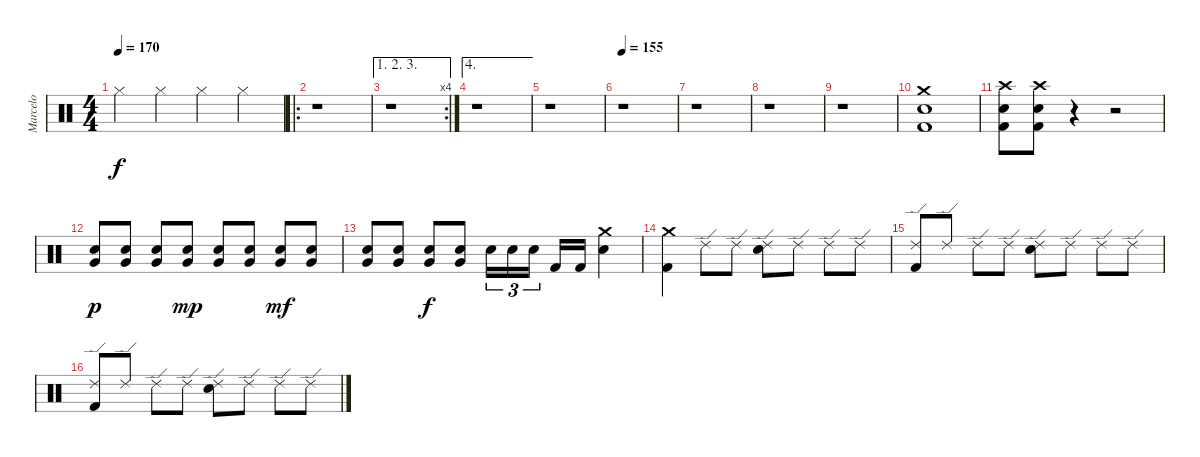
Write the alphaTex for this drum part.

\track ("Marcelo" "Marcelo") {instrument percussion}
\staff {score}
\articulation defaults
\ts (4 4)
\tempo 170
\tempo 145
\tempo 170
\clef neutral
\ks c "Hi-Hat (closed)".4{dy f} "Hi-Hat (closed)".4 "Hi-Hat (closed)".4 "Hi-Hat (closed)".4
|
\ro
r.1 |
\ae (1 2 3)
\rc 4
r.1 |
\ae 4
r.1 |
r.1 |
\tempo 155
r.1 |
r.1 |
r.1 |
r.1 |
("Crash medium (hit)" "Electric Snare (hit)" "Kick (hit) 2").1 |
("Crash high (hit)" "Electric Snare (hit)" "Kick (hit) 2").8 ("Crash high (hit)" "Electric Snare (hit)" "Kick (hit) 2").8 r.4 r.2 |
("Electric Snare (hit)" "Very Low Tom (hit)").8{dy p} ("Electric Snare (hit)" "Very Low Tom (hit)").8 ("Electric Snare (hit)" "Very Low Tom (hit)").8 ("Electric Snare (hit)" "Very Low Tom (hit)").8{dy mp} ("Electric Snare (hit)" "Very Low Tom (hit)").8 ("Electric Snare (hit)" "Very Low Tom (hit)").8 ("Electric Snare (hit)" "Very Low Tom (hit)").8{dy mf} ("Electric Snare (hit)" "Very Low Tom (hit)").8 |
("Electric Snare (hit)" "Very Low Tom (hit)").8 ("Electric Snare (hit)" "Very Low Tom (hit)").8 ("Electric Snare (hit)" "Very Low Tom (hit)").8{dy f} ("Electric Snare (hit)" "Very Low Tom (hit)").8 "Electric Snare (hit)".16{tu (3 2)} "Electric Snare (hit)".16{tu (3 2)} "Electric Snare (hit)".16{tu (3 2)} "Kick (hit) 2".16 "Kick (hit) 2".16 ("Crash medium (hit)" "Electric Snare (hit)").4 |
("Crash medium (hit)" "Kick (hit) 2").4 "Ride (edge) 2".8 "Ride (edge) 2".8 ("Ride (edge) 2" "Electric Snare (hit)").8 "Ride (edge) 2".8 "Ride (edge) 2".8 "Ride (edge) 2".8 |
("Ride (edge) 2" "Kick (hit) 2").8 "Ride (edge) 2".8 "Ride (edge) 2".8 "Ride (edge) 2".8 ("Ride (edge) 2" "Electric Snare (hit)").8 "Ride (edge) 2".8 "Ride (edge) 2".8 "Ride (edge) 2".8 |
("Ride (edge) 2" "Kick (hit) 2").8 "Ride (edge) 2".8 "Ride (edge) 2".8 "Ride (edge) 2".8 ("Ride (edge) 2" "Electric Snare (hit)").8 "Ride (edge) 2".8 "Ride (edge) 2".8 "Ride (edge) 2".8
